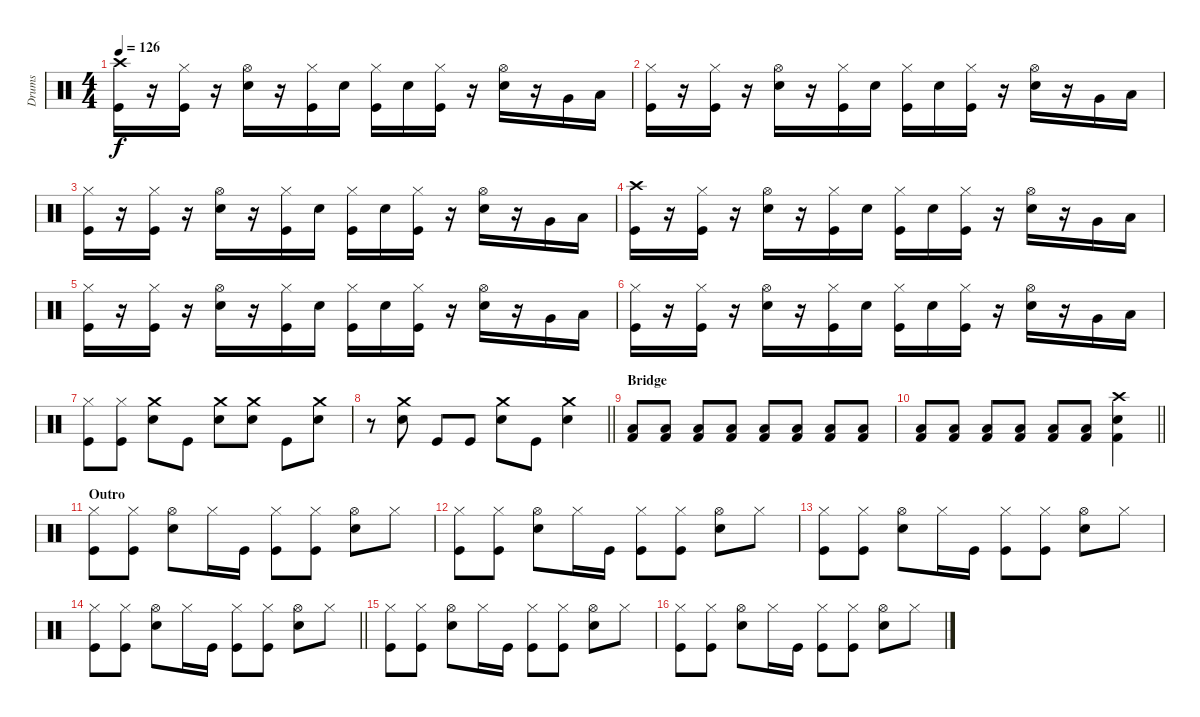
\track ("Drums" "Drums") {instrument percussion}
\staff {score}
\articulation defaults
\ts (4 4)
\tempo 126
\clef neutral
\ks c
("Crash high (hit)" "Kick (hit)").16{dy f} r.16 ("Hi-Hat (closed)" "Kick (hit)").16 r.16 ("Hi-Hat (open)" "Snare (hit) 2").16 r.16 ("Hi-Hat (closed)" "Kick (hit)").16 "Snare (hit) 2".16 ("Hi-Hat (closed)" "Kick (hit)").16 "Snare (hit) 2".16 ("Hi-Hat (closed)" "Kick (hit)").16 r.16 ("Hi-Hat (open)" "Snare (hit) 2").16 r.16 "Very Low Tom (hit)".16 "Low Tom (hit)".16 |
("Hi-Hat (closed)" "Kick (hit)").16 r.16 ("Hi-Hat (closed)" "Kick (hit)").16 r.16 ("Hi-Hat (open)" "Snare (hit) 2").16 r.16 ("Hi-Hat (closed)" "Kick (hit)").16 "Snare (hit) 2".16 ("Hi-Hat (closed)" "Kick (hit)").16 "Snare (hit) 2".16 ("Hi-Hat (closed)" "Kick (hit)").16 r.16 ("Hi-Hat (open)" "Snare (hit) 2").16 r.16 "Very Low Tom (hit)".16 "Low Tom (hit)".16 |
("Hi-Hat (closed)" "Kick (hit)").16 r.16 ("Hi-Hat (closed)" "Kick (hit)").16 r.16 ("Hi-Hat (open)" "Snare (hit) 2").16 r.16 ("Hi-Hat (closed)" "Kick (hit)").16 "Snare (hit) 2".16 ("Hi-Hat (closed)" "Kick (hit)").16 "Snare (hit) 2".16 ("Hi-Hat (closed)" "Kick (hit)").16 r.16 ("Hi-Hat (open)" "Snare (hit) 2").16 r.16 "Very Low Tom (hit)".16 "Low Tom (hit)".16 |
("Crash high (hit)" "Kick (hit)").16 r.16 ("Hi-Hat (closed)" "Kick (hit)").16 r.16 ("Hi-Hat (open)" "Snare (hit) 2").16 r.16 ("Hi-Hat (closed)" "Kick (hit)").16 "Snare (hit) 2".16 ("Hi-Hat (closed)" "Kick (hit)").16 "Snare (hit) 2".16 ("Hi-Hat (closed)" "Kick (hit)").16 r.16 ("Hi-Hat (open)" "Snare (hit) 2").16 r.16 "Very Low Tom (hit)".16 "Low Tom (hit)".16 |
("Hi-Hat (closed)" "Kick (hit)").16 r.16 ("Hi-Hat (closed)" "Kick (hit)").16 r.16 ("Hi-Hat (open)" "Snare (hit) 2").16 r.16 ("Hi-Hat (closed)" "Kick (hit)").16 "Snare (hit) 2".16 ("Hi-Hat (closed)" "Kick (hit)").16 "Snare (hit) 2".16 ("Hi-Hat (closed)" "Kick (hit)").16 r.16 ("Hi-Hat (open)" "Snare (hit) 2").16 r.16 "Very Low Tom (hit)".16 "Low Tom (hit)".16 |
("Hi-Hat (closed)" "Kick (hit)").16 r.16 ("Hi-Hat (closed)" "Kick (hit)").16 r.16 ("Hi-Hat (open)" "Snare (hit) 2").16 r.16 ("Hi-Hat (closed)" "Kick (hit)").16 "Snare (hit) 2".16 ("Hi-Hat (closed)" "Kick (hit)").16 "Snare (hit) 2".16 ("Hi-Hat (closed)" "Kick (hit)").16 r.16 ("Hi-Hat (open)" "Snare (hit) 2").16 r.16 "Very Low Tom (hit)".16 "Low Tom (hit)".16 |
("Hi-Hat (closed)" "Kick (hit)").8 ("Hi-Hat (closed)" "Kick (hit)").8 ("Crash medium (hit)" "Snare (hit) 2").8 "Kick (hit)".8 ("Crash medium (hit)" "Snare (hit) 2").8 ("Crash medium (hit)" "Snare (hit) 2").8 "Kick (hit)".8 ("Crash medium (hit)" "Snare (hit) 2").8 |
\barLineRight lightlight
r.8 ("Crash medium (hit)" "Snare (hit) 2").8 "Kick (hit)".8 "Kick (hit)".8 ("Crash medium (hit)" "Snare (hit) 2").8 "Kick (hit)".8 ("Crash medium (hit)" "Snare (hit) 2").4 |
\section ("" "Bridge")
("Low Floor Tom (hit)" "Kick (hit) 2").8{volume 6} ("Low Floor Tom (hit)" "Kick (hit) 2").8{volume 16} ("Low Floor Tom (hit)" "Kick (hit) 2").8 ("Low Floor Tom (hit)" "Kick (hit) 2").8 ("Low Floor Tom (hit)" "Kick (hit) 2").8 ("Low Floor Tom (hit)" "Kick (hit) 2").8 ("Low Floor Tom (hit)" "Kick (hit) 2").8 ("Low Floor Tom (hit)" "Kick (hit) 2").8 |
\barLineRight lightlight
("Low Floor Tom (hit)" "Kick (hit) 2").8 ("Low Floor Tom (hit)" "Kick (hit) 2").8 ("Low Floor Tom (hit)" "Kick (hit) 2").8 ("Low Floor Tom (hit)" "Kick (hit) 2").8 ("Low Floor Tom (hit)" "Kick (hit) 2").8 ("Low Floor Tom (hit)" "Kick (hit) 2").8 ("Crash high (hit)" "Electric Snare (hit)" "Kick (hit) 2").4{volume 12} |
\section ("" "Outro")
("Hi-Hat (closed)" "Kick (hit)").8 ("Hi-Hat (closed)" "Kick (hit)").8 ("Hi-Hat (open)" "Snare (hit) 2").8 "Hi-Hat (closed)".16 "Kick (hit)".16 ("Hi-Hat (closed)" "Kick (hit)").8 ("Hi-Hat (closed)" "Kick (hit)").8 ("Hi-Hat (open)" "Snare (hit) 2").8 "Hi-Hat (closed)".8 |
("Hi-Hat (closed)" "Kick (hit)").8 ("Hi-Hat (closed)" "Kick (hit)").8 ("Hi-Hat (open)" "Snare (hit) 2").8 "Hi-Hat (closed)".16 "Kick (hit)".16 ("Hi-Hat (closed)" "Kick (hit)").8 ("Hi-Hat (closed)" "Kick (hit)").8 ("Hi-Hat (open)" "Snare (hit) 2").8 "Hi-Hat (closed)".8 |
("Hi-Hat (closed)" "Kick (hit)").8 ("Hi-Hat (closed)" "Kick (hit)").8 ("Hi-Hat (open)" "Snare (hit) 2").8 "Hi-Hat (closed)".16 "Kick (hit)".16 ("Hi-Hat (closed)" "Kick (hit)").8 ("Hi-Hat (closed)" "Kick (hit)").8 ("Hi-Hat (open)" "Snare (hit) 2").8 "Hi-Hat (closed)".8 |
\barLineRight lightlight
("Hi-Hat (closed)" "Kick (hit)").8 ("Hi-Hat (closed)" "Kick (hit)").8 ("Hi-Hat (open)" "Snare (hit) 2").8 "Hi-Hat (closed)".16 "Kick (hit)".16 ("Hi-Hat (closed)" "Kick (hit)").8 ("Hi-Hat (closed)" "Kick (hit)").8 ("Hi-Hat (open)" "Snare (hit) 2").8 "Hi-Hat (closed)".8 |
("Hi-Hat (closed)" "Kick (hit)").8 ("Hi-Hat (closed)" "Kick (hit)").8 ("Hi-Hat (open)" "Snare (hit) 2").8 "Hi-Hat (closed)".16 "Kick (hit)".16 ("Hi-Hat (closed)" "Kick (hit)").8 ("Hi-Hat (closed)" "Kick (hit)").8 ("Hi-Hat (open)" "Snare (hit) 2").8 "Hi-Hat (closed)".8 |
("Hi-Hat (closed)" "Kick (hit)").8 ("Hi-Hat (closed)" "Kick (hit)").8 ("Hi-Hat (open)" "Snare (hit) 2").8 "Hi-Hat (closed)".16 "Kick (hit)".16 ("Hi-Hat (closed)" "Kick (hit)").8 ("Hi-Hat (closed)" "Kick (hit)").8 ("Hi-Hat (open)" "Snare (hit) 2").8 "Hi-Hat (closed)".8
